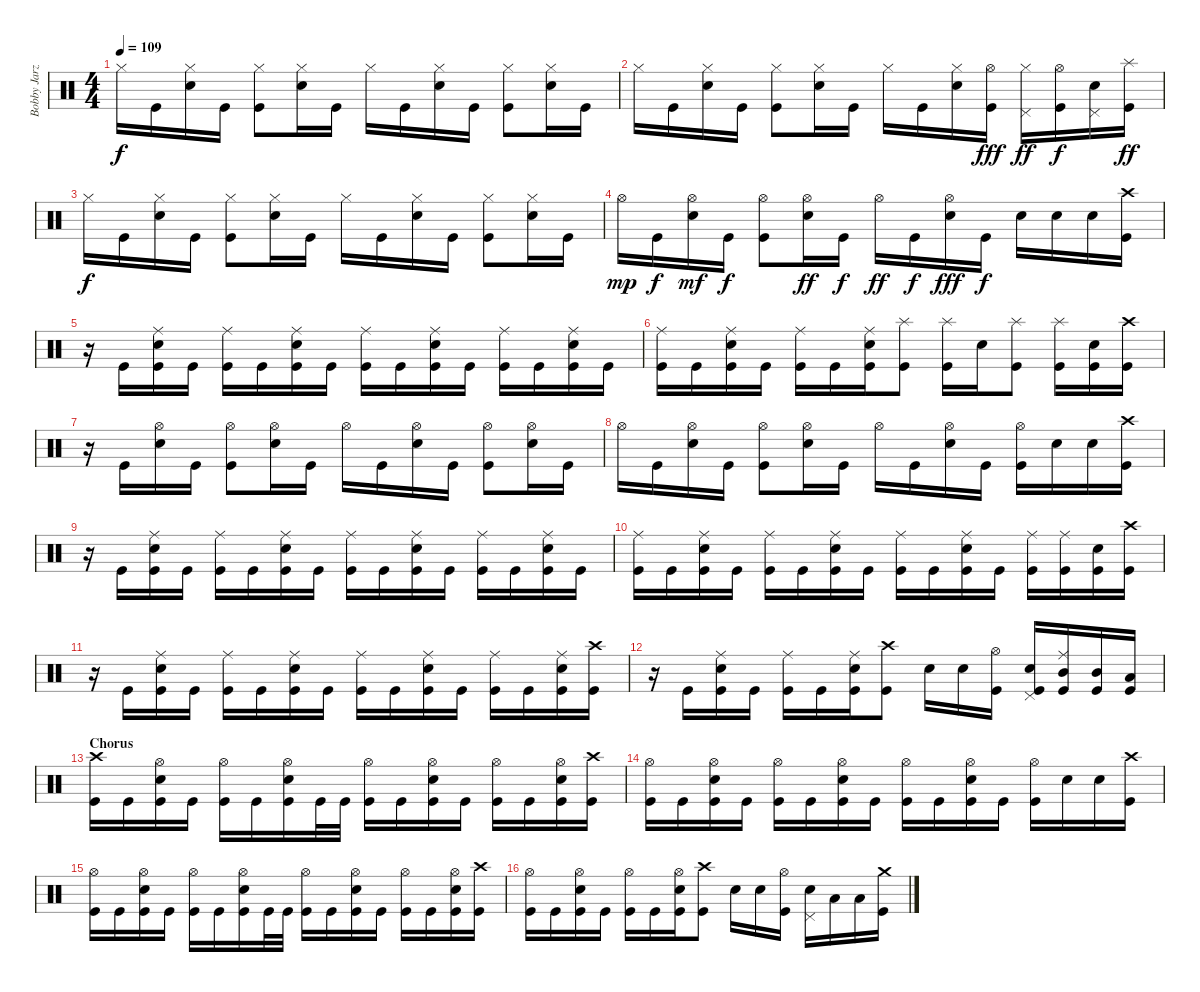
\track ("Bobby Jarzombek" "Bobby Jarz") {instrument percussion}
\staff {score}
\articulation defaults
\ts (4 4)
\tempo 109
\clef neutral
\ks c "Hi-Hat (closed)".16{dy f} "Kick (hit)".16
("Hi-Hat (closed)" "Electric Snare (hit)").16 "Kick (hit)".16 ("Hi-Hat (closed)" "Kick (hit)").8 ("Hi-Hat (closed)" "Electric Snare (hit)").16 "Kick (hit)".16 "Hi-Hat (closed)".16 "Kick (hit)".16 ("Hi-Hat (closed)" "Electric Snare (hit)").16 "Kick (hit)".16 ("Hi-Hat (closed)" "Kick (hit)").8 ("Hi-Hat (closed)" "Electric Snare (hit)").16 "Kick (hit)".16 |
"Hi-Hat (closed)".16 "Kick (hit)".16 ("Hi-Hat (closed)" "Electric Snare (hit)").16 "Kick (hit)".16 ("Hi-Hat (closed)" "Kick (hit)").8 ("Hi-Hat (closed)" "Electric Snare (hit)").16 "Kick (hit)".16 "Hi-Hat (closed)".16 "Kick (hit)".16 ("Hi-Hat (closed)" "Electric Snare (hit)").16 ("Hi-Hat (open)" "Kick (hit)").16{dy fff} ("Hi-Hat (closed)" "Pedal Hi-Hat (hit)").16{dy ff} ("Hi-Hat (open)" "Kick (hit)").16{dy f} ("Pedal Hi-Hat (hit)" "Electric Snare (hit)").16 ("Splash (hit)" "Kick (hit)").16{dy ff} |
"Hi-Hat (closed)".16{dy f} "Kick (hit)".16 ("Hi-Hat (closed)" "Electric Snare (hit)").16 "Kick (hit)".16 ("Hi-Hat (closed)" "Kick (hit)").8 ("Hi-Hat (closed)" "Electric Snare (hit)").16 "Kick (hit)".16 "Hi-Hat (closed)".16 "Kick (hit)".16 ("Hi-Hat (closed)" "Electric Snare (hit)").16 "Kick (hit)".16 ("Hi-Hat (closed)" "Kick (hit)").8 ("Hi-Hat (closed)" "Electric Snare (hit)").16 "Kick (hit)".16 |
"Hi-Hat (open)".16{dy mp} "Kick (hit)".16{dy f} ("Hi-Hat (open)" "Electric Snare (hit)").16{dy mf} "Kick (hit)".16{dy f} ("Hi-Hat (open)" "Kick (hit)").8 ("Hi-Hat (open)" "Electric Snare (hit)").16{dy ff} "Kick (hit)".16{dy f} "Hi-Hat (open)".16{dy ff} "Kick (hit)".16{dy f} ("Hi-Hat (open)" "Electric Snare (hit)").16{dy fff} "Kick (hit)".16{dy f} "Electric Snare (hit)".16 "Electric Snare (hit)".16 "Electric Snare (hit)".16 ("Crash high (hit)" "Kick (hit)").16 |
r.16 "Kick (hit)".16 ("Ride (middle)" "Electric Snare (hit)" "Kick (hit)").16 "Kick (hit)".16 ("Ride (middle)" "Kick (hit)").16 "Kick (hit)".16 ("Ride (middle)" "Electric Snare (hit)" "Kick (hit)").16 "Kick (hit)".16 ("Ride (middle)" "Kick (hit)").16 "Kick (hit)".16 ("Ride (middle)" "Electric Snare (hit)" "Kick (hit)").16 "Kick (hit)".16 ("Ride (middle)" "Kick (hit)").16 "Kick (hit)".16 ("Ride (middle)" "Electric Snare (hit)" "Kick (hit)").16 "Kick (hit)".16 |
("Ride (middle)" "Kick (hit)").16 "Kick (hit)".16 ("Ride (middle)" "Electric Snare (hit)" "Kick (hit)").16 "Kick (hit)".16 ("Ride (middle)" "Kick (hit)").16 "Kick (hit)".16 ("Ride (middle)" "Electric Snare (hit)" "Kick (hit)").16 ("Splash (hit)" "Kick (hit)").8 ("Splash (hit)" "Kick (hit)").16 "Electric Snare (hit)".16 ("Splash (hit)" "Kick (hit)").8 ("Splash (hit)" "Kick (hit)").16 ("Electric Snare (hit)" "Kick (hit)").16 ("Crash high (hit)" "Kick (hit)").16 |
r.16 "Kick (hit)".16 ("Hi-Hat (open)" "Electric Snare (hit)").16 "Kick (hit)".16 ("Hi-Hat (open)" "Kick (hit)").8 ("Hi-Hat (open)" "Electric Snare (hit)").16 "Kick (hit)".16 "Hi-Hat (open)".16 "Kick (hit)".16 ("Hi-Hat (open)" "Electric Snare (hit)").16 "Kick (hit)".16 ("Hi-Hat (open)" "Kick (hit)").8 ("Hi-Hat (open)" "Electric Snare (hit)").16 "Kick (hit)".16 |
"Hi-Hat (open)".16 "Kick (hit)".16 ("Hi-Hat (open)" "Electric Snare (hit)").16 "Kick (hit)".16 ("Hi-Hat (open)" "Kick (hit)").8 ("Hi-Hat (open)" "Electric Snare (hit)").16 "Kick (hit)".16 "Hi-Hat (open)".16 "Kick (hit)".16 ("Hi-Hat (open)" "Electric Snare (hit)").16 "Kick (hit)".16 ("Hi-Hat (open)" "Kick (hit)").16 "Electric Snare (hit)".16 "Electric Snare (hit)".16 ("Crash high (hit)" "Kick (hit)").16 |
r.16 "Kick (hit)".16 ("Ride (middle)" "Electric Snare (hit)" "Kick (hit)").16 "Kick (hit)".16 ("Ride (middle)" "Kick (hit)").16 "Kick (hit)".16 ("Ride (middle)" "Electric Snare (hit)" "Kick (hit)").16 "Kick (hit)".16 ("Ride (middle)" "Kick (hit)").16 "Kick (hit)".16 ("Ride (middle)" "Electric Snare (hit)" "Kick (hit)").16 "Kick (hit)".16 ("Ride (middle)" "Kick (hit)").16 "Kick (hit)".16 ("Ride (middle)" "Electric Snare (hit)" "Kick (hit)").16 "Kick (hit)".16 |
("Ride (middle)" "Kick (hit)").16 "Kick (hit)".16 ("Ride (middle)" "Electric Snare (hit)" "Kick (hit)").16 "Kick (hit)".16 ("Ride (middle)" "Kick (hit)").16 "Kick (hit)".16 ("Ride (middle)" "Electric Snare (hit)" "Kick (hit)").16 "Kick (hit)".16 ("Ride (middle)" "Kick (hit)").16 "Kick (hit)".16 ("Ride (middle)" "Electric Snare (hit)" "Kick (hit)").16 "Kick (hit)".16 ("Ride (middle)" "Kick (hit)").16 ("Ride (middle)" "Kick (hit)").16 ("Electric Snare (hit)" "Kick (hit)").16 ("Crash high (hit)" "Kick (hit)").16 |
r.16 "Kick (hit)".16 ("Ride (middle)" "Electric Snare (hit)" "Kick (hit)").16 "Kick (hit)".16 ("Ride (middle)" "Kick (hit)").16 "Kick (hit)".16 ("Ride (middle)" "Electric Snare (hit)" "Kick (hit)").16 "Kick (hit)".16 ("Ride (middle)" "Kick (hit)").16 "Kick (hit)".16 ("Ride (middle)" "Electric Snare (hit)" "Kick (hit)").16 "Kick (hit)".16 ("Ride (middle)" "Kick (hit)").16 "Kick (hit)".16 ("Ride (middle)" "Electric Snare (hit)" "Kick (hit)").16 ("Crash high (hit)" "Kick (hit)").16 |
r.16 "Kick (hit)".16 ("Ride (middle)" "Electric Snare (hit)" "Kick (hit)").16 "Kick (hit)".16 ("Ride (middle)" "Kick (hit)").16 "Kick (hit)".16 ("Ride (middle)" "Electric Snare (hit)" "Kick (hit)").16 ("Crash high (hit)" "Kick (hit)").8 "Electric Snare (hit)".16 "Electric Snare (hit)".16 ("Hi-Hat (open)" "Kick (hit)").16 ("Electric Snare (hit)" "Pedal Hi-Hat (hit)" "Kick (hit)").16 ("Ride (middle)" "Mid Tom (hit)" "Kick (hit)").16 ("Mid Tom (hit)" "Kick (hit)").16 ("Low Tom (hit)" "Kick (hit)").16 |
\section ("" "Chorus")
("Crash high (hit)" "Kick (hit)").16 "Kick (hit)".16 ("Hi-Hat (open)" "Electric Snare (hit)" "Kick (hit)").16 "Kick (hit)".16 ("Hi-Hat (open)" "Kick (hit)").16 "Kick (hit)".16 ("Hi-Hat (open)" "Electric Snare (hit)" "Kick (hit)").16 "Kick (hit)".32 "Kick (hit)".32 ("Hi-Hat (open)" "Kick (hit)").16 "Kick (hit)".16 ("Hi-Hat (open)" "Electric Snare (hit)" "Kick (hit)").16 "Kick (hit)".16 ("Hi-Hat (open)" "Kick (hit)").16 "Kick (hit)".16 ("Hi-Hat (open)" "Electric Snare (hit)" "Kick (hit)").16 ("Crash high (hit)" "Kick (hit)").16 |
("Hi-Hat (open)" "Kick (hit)").16 "Kick (hit)".16 ("Hi-Hat (open)" "Electric Snare (hit)" "Kick (hit)").16 "Kick (hit)".16 ("Hi-Hat (open)" "Kick (hit)").16 "Kick (hit)".16 ("Hi-Hat (open)" "Electric Snare (hit)" "Kick (hit)").16 "Kick (hit)".16 ("Hi-Hat (open)" "Kick (hit)").16 "Kick (hit)".16 ("Hi-Hat (open)" "Electric Snare (hit)" "Kick (hit)").16 "Kick (hit)".16 ("Hi-Hat (open)" "Kick (hit)").16 "Electric Snare (hit)".16 "Electric Snare (hit)".16 ("Crash high (hit)" "Kick (hit)").16 |
("Hi-Hat (open)" "Kick (hit)").16 "Kick (hit)".16 ("Hi-Hat (open)" "Electric Snare (hit)" "Kick (hit)").16 "Kick (hit)".16 ("Hi-Hat (open)" "Kick (hit)").16 "Kick (hit)".16 ("Hi-Hat (open)" "Electric Snare (hit)" "Kick (hit)").16 "Kick (hit)".32 "Kick (hit)".32 ("Hi-Hat (open)" "Kick (hit)").16 "Kick (hit)".16 ("Hi-Hat (open)" "Electric Snare (hit)" "Kick (hit)").16 "Kick (hit)".16 ("Hi-Hat (open)" "Kick (hit)").16 "Kick (hit)".16 ("Hi-Hat (open)" "Electric Snare (hit)" "Kick (hit)").16 ("Crash high (hit)" "Kick (hit)").16 |
("Hi-Hat (open)" "Kick (hit)").16 "Kick (hit)".16 ("Hi-Hat (open)" "Electric Snare (hit)" "Kick (hit)").16 "Kick (hit)".16 ("Hi-Hat (open)" "Kick (hit)").16 "Kick (hit)".16 ("Hi-Hat (open)" "Electric Snare (hit)" "Kick (hit)").16 ("Crash high (hit)" "Kick (hit)").8 "Electric Snare (hit)".16 "Electric Snare (hit)".16 ("Hi-Hat (open)" "Kick (hit)").16 ("Electric Snare (hit)" "Pedal Hi-Hat (hit)").16 "Low Tom (hit)".16 "Low Tom (hit)".16 ("Crash medium (hit)" "Kick (hit)").16
